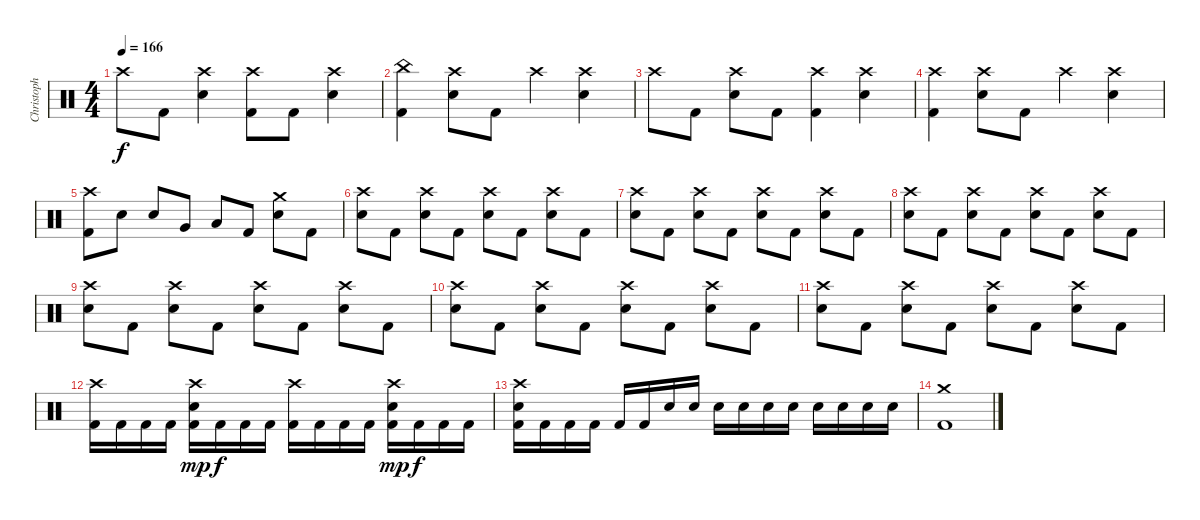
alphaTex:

\track ("Christoph" "Christoph") {instrument percussion}
\staff {score}
\articulation defaults
\ts (4 4)
\tempo 166
\clef neutral
\ks c "Crash high (hit)".8{dy f} "Kick (hit) 2".8
("Crash high (hit)" "Electric Snare (hit)").4 ("Crash high (hit)" "Kick (hit) 2").8 "Kick (hit) 2".8 ("Crash high (hit)" "Electric Snare (hit)").4 |
("China (hit)" "Kick (hit) 2").4 ("Crash high (hit)" "Electric Snare (hit)").8 "Kick (hit) 2".8 "Crash high (hit)".4 ("Crash high (hit)" "Electric Snare (hit)").4 |
"Crash high (hit)".8 "Kick (hit) 2".8 ("Crash high (hit)" "Electric Snare (hit)").8 "Kick (hit) 2".8 ("Crash high (hit)" "Kick (hit) 2").4 ("Crash high (hit)" "Electric Snare (hit)").4 |
("Crash high (hit)" "Kick (hit) 2").4 ("Crash high (hit)" "Electric Snare (hit)").8 "Kick (hit) 2".8 "Crash high (hit)".4 ("Crash high (hit)" "Electric Snare (hit)").4 |
("Crash high (hit)" "Kick (hit) 2").8 "Electric Snare (hit)".8 "Electric Snare (hit)".8 "Very Low Tom (hit)".8 "Low Floor Tom (hit)".8 "Kick (hit) 2".8 ("Crash medium (hit)" "Electric Snare (hit)").8 "Kick (hit) 2".8 |
("Crash high (hit)" "Electric Snare (hit)").8 "Kick (hit) 2".8 ("Crash high (hit)" "Electric Snare (hit)").8 "Kick (hit) 2".8 ("Crash high (hit)" "Electric Snare (hit)").8 "Kick (hit) 2".8 ("Crash high (hit)" "Electric Snare (hit)").8 "Kick (hit) 2".8 |
("Crash high (hit)" "Electric Snare (hit)").8 "Kick (hit) 2".8 ("Crash high (hit)" "Electric Snare (hit)").8 "Kick (hit) 2".8 ("Crash high (hit)" "Electric Snare (hit)").8 "Kick (hit) 2".8 ("Crash high (hit)" "Electric Snare (hit)").8 "Kick (hit) 2".8 |
("Crash high (hit)" "Electric Snare (hit)").8 "Kick (hit) 2".8 ("Crash high (hit)" "Electric Snare (hit)").8 "Kick (hit) 2".8 ("Crash high (hit)" "Electric Snare (hit)").8 "Kick (hit) 2".8 ("Crash high (hit)" "Electric Snare (hit)").8 "Kick (hit) 2".8 |
("Crash high (hit)" "Electric Snare (hit)").8 "Kick (hit) 2".8 ("Crash high (hit)" "Electric Snare (hit)").8 "Kick (hit) 2".8 ("Crash high (hit)" "Electric Snare (hit)").8 "Kick (hit) 2".8 ("Crash high (hit)" "Electric Snare (hit)").8 "Kick (hit) 2".8 |
("Crash high (hit)" "Electric Snare (hit)").8 "Kick (hit) 2".8 ("Crash high (hit)" "Electric Snare (hit)").8 "Kick (hit) 2".8 ("Crash high (hit)" "Electric Snare (hit)").8 "Kick (hit) 2".8 ("Crash high (hit)" "Electric Snare (hit)").8 "Kick (hit) 2".8 |
("Crash high (hit)" "Electric Snare (hit)").8 "Kick (hit) 2".8 ("Crash high (hit)" "Electric Snare (hit)").8 "Kick (hit) 2".8 ("Crash high (hit)" "Electric Snare (hit)").8 "Kick (hit) 2".8 ("Crash high (hit)" "Electric Snare (hit)").8 "Kick (hit) 2".8 |
("Crash high (hit)" "Kick (hit) 2").16 "Kick (hit) 2".16 "Kick (hit) 2".16 "Kick (hit) 2".16 ("Crash high (hit)" "Electric Snare (hit)" "Kick (hit) 2").16{dy mp} "Kick (hit) 2".16{dy f} "Kick (hit) 2".16 "Kick (hit) 2".16 ("Crash high (hit)" "Kick (hit) 2").16 "Kick (hit) 2".16 "Kick (hit) 2".16 "Kick (hit) 2".16 ("Crash high (hit)" "Electric Snare (hit)" "Kick (hit) 2").16{dy mp} "Kick (hit) 2".16{dy f} "Kick (hit) 2".16 "Kick (hit) 2".16 |
("Crash high (hit)" "Electric Snare (hit)" "Kick (hit) 2").16 "Kick (hit) 2".16 "Kick (hit) 2".16 "Kick (hit) 2".16 "Kick (hit) 2".16 "Kick (hit) 2".16 "Electric Snare (hit)".16 "Electric Snare (hit)".16 "Electric Snare (hit)".16 "Electric Snare (hit)".16 "Electric Snare (hit)".16 "Electric Snare (hit)".16 "Electric Snare (hit)".16 "Electric Snare (hit)".16 "Electric Snare (hit)".16 "Electric Snare (hit)".16 |
("Crash medium (hit)" "Kick (hit) 2").1
